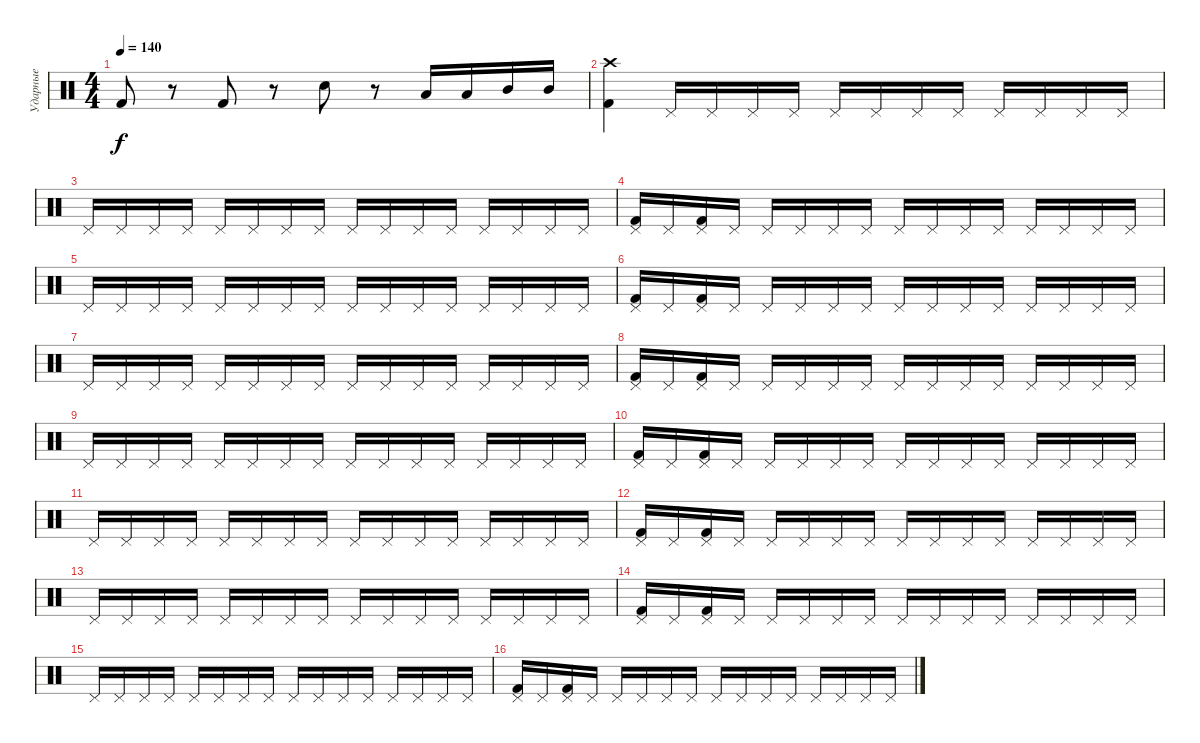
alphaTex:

\track ("Ударные" "Ударные") {instrument percussion}
\staff {score}
\articulation defaults
\ts (4 4)
\tempo 140
\clef neutral
\ks c "Kick (hit) 2".8{dy f}
r.8 "Kick (hit) 2".8 r.8 "Electric Snare (hit)".8 r.8 "Low Tom (hit)".16 "Low Tom (hit)".16 "Mid Tom (hit)".16 "Mid Tom (hit)".16 |
("Crash high (hit)" "Kick (hit) 2").4 "Pedal Hi-Hat (hit)".16 "Pedal Hi-Hat (hit)".16 "Pedal Hi-Hat (hit)".16 "Pedal Hi-Hat (hit)".16 "Pedal Hi-Hat (hit)".16 "Pedal Hi-Hat (hit)".16 "Pedal Hi-Hat (hit)".16 "Pedal Hi-Hat (hit)".16 "Pedal Hi-Hat (hit)".16 "Pedal Hi-Hat (hit)".16 "Pedal Hi-Hat (hit)".16 "Pedal Hi-Hat (hit)".16 |
"Pedal Hi-Hat (hit)".16 "Pedal Hi-Hat (hit)".16 "Pedal Hi-Hat (hit)".16 "Pedal Hi-Hat (hit)".16 "Pedal Hi-Hat (hit)".16 "Pedal Hi-Hat (hit)".16 "Pedal Hi-Hat (hit)".16 "Pedal Hi-Hat (hit)".16 "Pedal Hi-Hat (hit)".16 "Pedal Hi-Hat (hit)".16 "Pedal Hi-Hat (hit)".16 "Pedal Hi-Hat (hit)".16 "Pedal Hi-Hat (hit)".16 "Pedal Hi-Hat (hit)".16 "Pedal Hi-Hat (hit)".16 "Pedal Hi-Hat (hit)".16 |
("Pedal Hi-Hat (hit)" "Kick (hit) 2").16 "Pedal Hi-Hat (hit)".16 ("Pedal Hi-Hat (hit)" "Kick (hit) 2").16 "Pedal Hi-Hat (hit)".16 "Pedal Hi-Hat (hit)".16 "Pedal Hi-Hat (hit)".16 "Pedal Hi-Hat (hit)".16 "Pedal Hi-Hat (hit)".16 "Pedal Hi-Hat (hit)".16 "Pedal Hi-Hat (hit)".16 "Pedal Hi-Hat (hit)".16 "Pedal Hi-Hat (hit)".16 "Pedal Hi-Hat (hit)".16 "Pedal Hi-Hat (hit)".16 "Pedal Hi-Hat (hit)".16 "Pedal Hi-Hat (hit)".16 |
"Pedal Hi-Hat (hit)".16 "Pedal Hi-Hat (hit)".16 "Pedal Hi-Hat (hit)".16 "Pedal Hi-Hat (hit)".16 "Pedal Hi-Hat (hit)".16 "Pedal Hi-Hat (hit)".16 "Pedal Hi-Hat (hit)".16 "Pedal Hi-Hat (hit)".16 "Pedal Hi-Hat (hit)".16 "Pedal Hi-Hat (hit)".16 "Pedal Hi-Hat (hit)".16 "Pedal Hi-Hat (hit)".16 "Pedal Hi-Hat (hit)".16 "Pedal Hi-Hat (hit)".16 "Pedal Hi-Hat (hit)".16 "Pedal Hi-Hat (hit)".16 |
("Pedal Hi-Hat (hit)" "Kick (hit) 2").16 "Pedal Hi-Hat (hit)".16 ("Pedal Hi-Hat (hit)" "Kick (hit) 2").16 "Pedal Hi-Hat (hit)".16 "Pedal Hi-Hat (hit)".16 "Pedal Hi-Hat (hit)".16 "Pedal Hi-Hat (hit)".16 "Pedal Hi-Hat (hit)".16 "Pedal Hi-Hat (hit)".16 "Pedal Hi-Hat (hit)".16 "Pedal Hi-Hat (hit)".16 "Pedal Hi-Hat (hit)".16 "Pedal Hi-Hat (hit)".16 "Pedal Hi-Hat (hit)".16 "Pedal Hi-Hat (hit)".16 "Pedal Hi-Hat (hit)".16 |
"Pedal Hi-Hat (hit)".16 "Pedal Hi-Hat (hit)".16 "Pedal Hi-Hat (hit)".16 "Pedal Hi-Hat (hit)".16 "Pedal Hi-Hat (hit)".16 "Pedal Hi-Hat (hit)".16 "Pedal Hi-Hat (hit)".16 "Pedal Hi-Hat (hit)".16 "Pedal Hi-Hat (hit)".16 "Pedal Hi-Hat (hit)".16 "Pedal Hi-Hat (hit)".16 "Pedal Hi-Hat (hit)".16 "Pedal Hi-Hat (hit)".16 "Pedal Hi-Hat (hit)".16 "Pedal Hi-Hat (hit)".16 "Pedal Hi-Hat (hit)".16 |
("Pedal Hi-Hat (hit)" "Kick (hit) 2").16 "Pedal Hi-Hat (hit)".16 ("Pedal Hi-Hat (hit)" "Kick (hit) 2").16 "Pedal Hi-Hat (hit)".16 "Pedal Hi-Hat (hit)".16 "Pedal Hi-Hat (hit)".16 "Pedal Hi-Hat (hit)".16 "Pedal Hi-Hat (hit)".16 "Pedal Hi-Hat (hit)".16 "Pedal Hi-Hat (hit)".16 "Pedal Hi-Hat (hit)".16 "Pedal Hi-Hat (hit)".16 "Pedal Hi-Hat (hit)".16 "Pedal Hi-Hat (hit)".16 "Pedal Hi-Hat (hit)".16 "Pedal Hi-Hat (hit)".16 |
"Pedal Hi-Hat (hit)".16 "Pedal Hi-Hat (hit)".16 "Pedal Hi-Hat (hit)".16 "Pedal Hi-Hat (hit)".16 "Pedal Hi-Hat (hit)".16 "Pedal Hi-Hat (hit)".16 "Pedal Hi-Hat (hit)".16 "Pedal Hi-Hat (hit)".16 "Pedal Hi-Hat (hit)".16 "Pedal Hi-Hat (hit)".16 "Pedal Hi-Hat (hit)".16 "Pedal Hi-Hat (hit)".16 "Pedal Hi-Hat (hit)".16 "Pedal Hi-Hat (hit)".16 "Pedal Hi-Hat (hit)".16 "Pedal Hi-Hat (hit)".16 |
("Pedal Hi-Hat (hit)" "Kick (hit) 2").16 "Pedal Hi-Hat (hit)".16 ("Pedal Hi-Hat (hit)" "Kick (hit) 2").16 "Pedal Hi-Hat (hit)".16 "Pedal Hi-Hat (hit)".16 "Pedal Hi-Hat (hit)".16 "Pedal Hi-Hat (hit)".16 "Pedal Hi-Hat (hit)".16 "Pedal Hi-Hat (hit)".16 "Pedal Hi-Hat (hit)".16 "Pedal Hi-Hat (hit)".16 "Pedal Hi-Hat (hit)".16 "Pedal Hi-Hat (hit)".16 "Pedal Hi-Hat (hit)".16 "Pedal Hi-Hat (hit)".16 "Pedal Hi-Hat (hit)".16 |
"Pedal Hi-Hat (hit)".16 "Pedal Hi-Hat (hit)".16 "Pedal Hi-Hat (hit)".16 "Pedal Hi-Hat (hit)".16 "Pedal Hi-Hat (hit)".16 "Pedal Hi-Hat (hit)".16 "Pedal Hi-Hat (hit)".16 "Pedal Hi-Hat (hit)".16 "Pedal Hi-Hat (hit)".16 "Pedal Hi-Hat (hit)".16 "Pedal Hi-Hat (hit)".16 "Pedal Hi-Hat (hit)".16 "Pedal Hi-Hat (hit)".16 "Pedal Hi-Hat (hit)".16 "Pedal Hi-Hat (hit)".16 "Pedal Hi-Hat (hit)".16 |
("Pedal Hi-Hat (hit)" "Kick (hit) 2").16 "Pedal Hi-Hat (hit)".16 ("Pedal Hi-Hat (hit)" "Kick (hit) 2").16 "Pedal Hi-Hat (hit)".16 "Pedal Hi-Hat (hit)".16 "Pedal Hi-Hat (hit)".16 "Pedal Hi-Hat (hit)".16 "Pedal Hi-Hat (hit)".16 "Pedal Hi-Hat (hit)".16 "Pedal Hi-Hat (hit)".16 "Pedal Hi-Hat (hit)".16 "Pedal Hi-Hat (hit)".16 "Pedal Hi-Hat (hit)".16 "Pedal Hi-Hat (hit)".16 "Pedal Hi-Hat (hit)".16 "Pedal Hi-Hat (hit)".16 |
"Pedal Hi-Hat (hit)".16 "Pedal Hi-Hat (hit)".16 "Pedal Hi-Hat (hit)".16 "Pedal Hi-Hat (hit)".16 "Pedal Hi-Hat (hit)".16 "Pedal Hi-Hat (hit)".16 "Pedal Hi-Hat (hit)".16 "Pedal Hi-Hat (hit)".16 "Pedal Hi-Hat (hit)".16 "Pedal Hi-Hat (hit)".16 "Pedal Hi-Hat (hit)".16 "Pedal Hi-Hat (hit)".16 "Pedal Hi-Hat (hit)".16 "Pedal Hi-Hat (hit)".16 "Pedal Hi-Hat (hit)".16 "Pedal Hi-Hat (hit)".16 |
("Pedal Hi-Hat (hit)" "Kick (hit) 2").16 "Pedal Hi-Hat (hit)".16 ("Pedal Hi-Hat (hit)" "Kick (hit) 2").16 "Pedal Hi-Hat (hit)".16 "Pedal Hi-Hat (hit)".16 "Pedal Hi-Hat (hit)".16 "Pedal Hi-Hat (hit)".16 "Pedal Hi-Hat (hit)".16 "Pedal Hi-Hat (hit)".16 "Pedal Hi-Hat (hit)".16 "Pedal Hi-Hat (hit)".16 "Pedal Hi-Hat (hit)".16 "Pedal Hi-Hat (hit)".16 "Pedal Hi-Hat (hit)".16 "Pedal Hi-Hat (hit)".16 "Pedal Hi-Hat (hit)".16 |
"Pedal Hi-Hat (hit)".16 "Pedal Hi-Hat (hit)".16 "Pedal Hi-Hat (hit)".16 "Pedal Hi-Hat (hit)".16 "Pedal Hi-Hat (hit)".16 "Pedal Hi-Hat (hit)".16 "Pedal Hi-Hat (hit)".16 "Pedal Hi-Hat (hit)".16 "Pedal Hi-Hat (hit)".16 "Pedal Hi-Hat (hit)".16 "Pedal Hi-Hat (hit)".16 "Pedal Hi-Hat (hit)".16 "Pedal Hi-Hat (hit)".16 "Pedal Hi-Hat (hit)".16 "Pedal Hi-Hat (hit)".16 "Pedal Hi-Hat (hit)".16 |
("Pedal Hi-Hat (hit)" "Kick (hit) 2").16 "Pedal Hi-Hat (hit)".16 ("Pedal Hi-Hat (hit)" "Kick (hit) 2").16 "Pedal Hi-Hat (hit)".16 "Pedal Hi-Hat (hit)".16 "Pedal Hi-Hat (hit)".16 "Pedal Hi-Hat (hit)".16 "Pedal Hi-Hat (hit)".16 "Pedal Hi-Hat (hit)".16 "Pedal Hi-Hat (hit)".16 "Pedal Hi-Hat (hit)".16 "Pedal Hi-Hat (hit)".16 "Pedal Hi-Hat (hit)".16 "Pedal Hi-Hat (hit)".16 "Pedal Hi-Hat (hit)".16 "Pedal Hi-Hat (hit)".16
